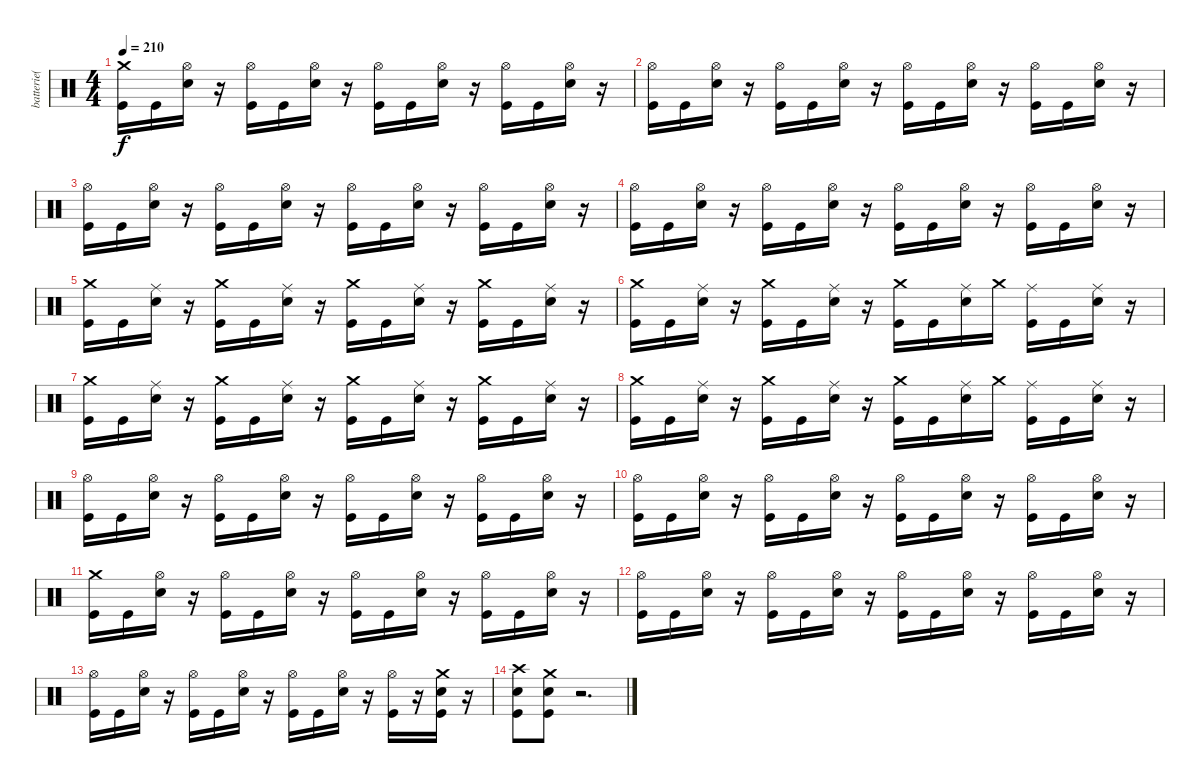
\track ("batterie( Rob )" "batterie( ") {instrument percussion}
\staff {score}
\articulation defaults
\ts (4 4)
\tempo 210
\clef neutral
\ks c
("Crash medium (hit)" "Kick (hit)").16{dy f} "Kick (hit)".16 ("Hi-Hat (open)" "Snare (hit) 2").16 r.16 ("Hi-Hat (open)" "Kick (hit)").16 "Kick (hit)".16 ("Hi-Hat (open)" "Snare (hit) 2").16 r.16 ("Hi-Hat (open)" "Kick (hit)").16 "Kick (hit)".16 ("Hi-Hat (open)" "Snare (hit) 2").16 r.16 ("Hi-Hat (open)" "Kick (hit)").16 "Kick (hit)".16 ("Hi-Hat (open)" "Snare (hit) 2").16 r.16 |
("Hi-Hat (open)" "Kick (hit)").16 "Kick (hit)".16 ("Hi-Hat (open)" "Snare (hit) 2").16 r.16 ("Hi-Hat (open)" "Kick (hit)").16 "Kick (hit)".16 ("Hi-Hat (open)" "Snare (hit) 2").16 r.16 ("Hi-Hat (open)" "Kick (hit)").16 "Kick (hit)".16 ("Hi-Hat (open)" "Snare (hit) 2").16 r.16 ("Hi-Hat (open)" "Kick (hit)").16 "Kick (hit)".16 ("Hi-Hat (open)" "Snare (hit) 2").16 r.16 |
("Hi-Hat (open)" "Kick (hit)").16 "Kick (hit)".16 ("Hi-Hat (open)" "Snare (hit) 2").16 r.16 ("Hi-Hat (open)" "Kick (hit)").16 "Kick (hit)".16 ("Hi-Hat (open)" "Snare (hit) 2").16 r.16 ("Hi-Hat (open)" "Kick (hit)").16 "Kick (hit)".16 ("Hi-Hat (open)" "Snare (hit) 2").16 r.16 ("Hi-Hat (open)" "Kick (hit)").16 "Kick (hit)".16 ("Hi-Hat (open)" "Snare (hit) 2").16 r.16 |
("Hi-Hat (open)" "Kick (hit)").16 "Kick (hit)".16 ("Hi-Hat (open)" "Snare (hit) 2").16 r.16 ("Hi-Hat (open)" "Kick (hit)").16 "Kick (hit)".16 ("Hi-Hat (open)" "Snare (hit) 2").16 r.16 ("Hi-Hat (open)" "Kick (hit)").16 "Kick (hit)".16 ("Hi-Hat (open)" "Snare (hit) 2").16 r.16 ("Hi-Hat (open)" "Kick (hit)").16 "Kick (hit)".16 ("Hi-Hat (open)" "Snare (hit) 2").16 r.16 |
("Crash medium (hit)" "Kick (hit)").16 "Kick (hit)".16 ("Ride (middle)" "Snare (hit) 2").16 r.16 ("Crash medium (hit)" "Kick (hit)").16 "Kick (hit)".16 ("Ride (middle)" "Snare (hit) 2").16 r.16 ("Crash medium (hit)" "Kick (hit)").16 "Kick (hit)".16 ("Ride (middle)" "Snare (hit) 2").16 r.16 ("Crash medium (hit)" "Kick (hit)").16 "Kick (hit)".16 ("Ride (middle)" "Snare (hit) 2").16 r.16 |
("Crash medium (hit)" "Kick (hit)").16 "Kick (hit)".16 ("Ride (middle)" "Snare (hit) 2").16 r.16 ("Crash medium (hit)" "Kick (hit)").16 "Kick (hit)".16 ("Ride (middle)" "Snare (hit) 2").16 r.16 ("Crash medium (hit)" "Kick (hit)").16 "Kick (hit)".16 ("Ride (middle)" "Snare (hit) 2").16 "Crash medium (hit)".16 ("Ride (middle)" "Kick (hit)").16 "Kick (hit)".16 ("Ride (middle)" "Snare (hit) 2").16 r.16 |
("Crash medium (hit)" "Kick (hit)").16 "Kick (hit)".16 ("Ride (middle)" "Snare (hit) 2").16 r.16 ("Crash medium (hit)" "Kick (hit)").16 "Kick (hit)".16 ("Ride (middle)" "Snare (hit) 2").16 r.16 ("Crash medium (hit)" "Kick (hit)").16 "Kick (hit)".16 ("Ride (middle)" "Snare (hit) 2").16 r.16 ("Crash medium (hit)" "Kick (hit)").16 "Kick (hit)".16 ("Ride (middle)" "Snare (hit) 2").16 r.16 |
("Crash medium (hit)" "Kick (hit)").16 "Kick (hit)".16 ("Ride (middle)" "Snare (hit) 2").16 r.16 ("Crash medium (hit)" "Kick (hit)").16 "Kick (hit)".16 ("Ride (middle)" "Snare (hit) 2").16 r.16 ("Crash medium (hit)" "Kick (hit)").16 "Kick (hit)".16 ("Ride (middle)" "Snare (hit) 2").16 "Crash medium (hit)".16 ("Ride (middle)" "Kick (hit)").16 "Kick (hit)".16 ("Ride (middle)" "Snare (hit) 2").16 r.16 |
("Hi-Hat (open)" "Kick (hit)").16 "Kick (hit)".16 ("Hi-Hat (open)" "Snare (hit) 2").16 r.16 ("Hi-Hat (open)" "Kick (hit)").16 "Kick (hit)".16 ("Hi-Hat (open)" "Snare (hit) 2").16 r.16 ("Hi-Hat (open)" "Kick (hit)").16 "Kick (hit)".16 ("Hi-Hat (open)" "Snare (hit) 2").16 r.16 ("Hi-Hat (open)" "Kick (hit)").16 "Kick (hit)".16 ("Hi-Hat (open)" "Snare (hit) 2").16 r.16 |
("Hi-Hat (open)" "Kick (hit)").16 "Kick (hit)".16 ("Hi-Hat (open)" "Snare (hit) 2").16 r.16 ("Hi-Hat (open)" "Kick (hit)").16 "Kick (hit)".16 ("Hi-Hat (open)" "Snare (hit) 2").16 r.16 ("Hi-Hat (open)" "Kick (hit)").16 "Kick (hit)".16 ("Hi-Hat (open)" "Snare (hit) 2").16 r.16 ("Hi-Hat (open)" "Kick (hit)").16 "Kick (hit)".16 ("Hi-Hat (open)" "Snare (hit) 2").16 r.16 |
("Crash medium (hit)" "Kick (hit)").16 "Kick (hit)".16 ("Hi-Hat (open)" "Snare (hit) 2").16 r.16 ("Hi-Hat (open)" "Kick (hit)").16 "Kick (hit)".16 ("Hi-Hat (open)" "Snare (hit) 2").16 r.16 ("Hi-Hat (open)" "Kick (hit)").16 "Kick (hit)".16 ("Hi-Hat (open)" "Snare (hit) 2").16 r.16 ("Hi-Hat (open)" "Kick (hit)").16 "Kick (hit)".16 ("Hi-Hat (open)" "Snare (hit) 2").16 r.16 |
("Hi-Hat (open)" "Kick (hit)").16 "Kick (hit)".16 ("Hi-Hat (open)" "Snare (hit) 2").16 r.16 ("Hi-Hat (open)" "Kick (hit)").16 "Kick (hit)".16 ("Hi-Hat (open)" "Snare (hit) 2").16 r.16 ("Hi-Hat (open)" "Kick (hit)").16 "Kick (hit)".16 ("Hi-Hat (open)" "Snare (hit) 2").16 r.16 ("Hi-Hat (open)" "Kick (hit)").16 "Kick (hit)".16 ("Hi-Hat (open)" "Snare (hit) 2").16 r.16 |
("Hi-Hat (open)" "Kick (hit)").16 "Kick (hit)".16 ("Hi-Hat (open)" "Snare (hit) 2").16 r.16 ("Hi-Hat (open)" "Kick (hit)").16 "Kick (hit)".16 ("Hi-Hat (open)" "Snare (hit) 2").16 r.16 ("Hi-Hat (open)" "Kick (hit)").16 "Kick (hit)".16 ("Hi-Hat (open)" "Snare (hit) 2").16 r.16 ("Hi-Hat (open)" "Kick (hit)").16 r.16 ("Crash medium (hit)" "Snare (hit) 2" "Kick (hit)").16 r.16 |
("Crash high (hit)" "Snare (hit) 2" "Kick (hit)").8 ("Crash medium (hit)" "Snare (hit) 2" "Kick (hit)").8 r.2{d}
